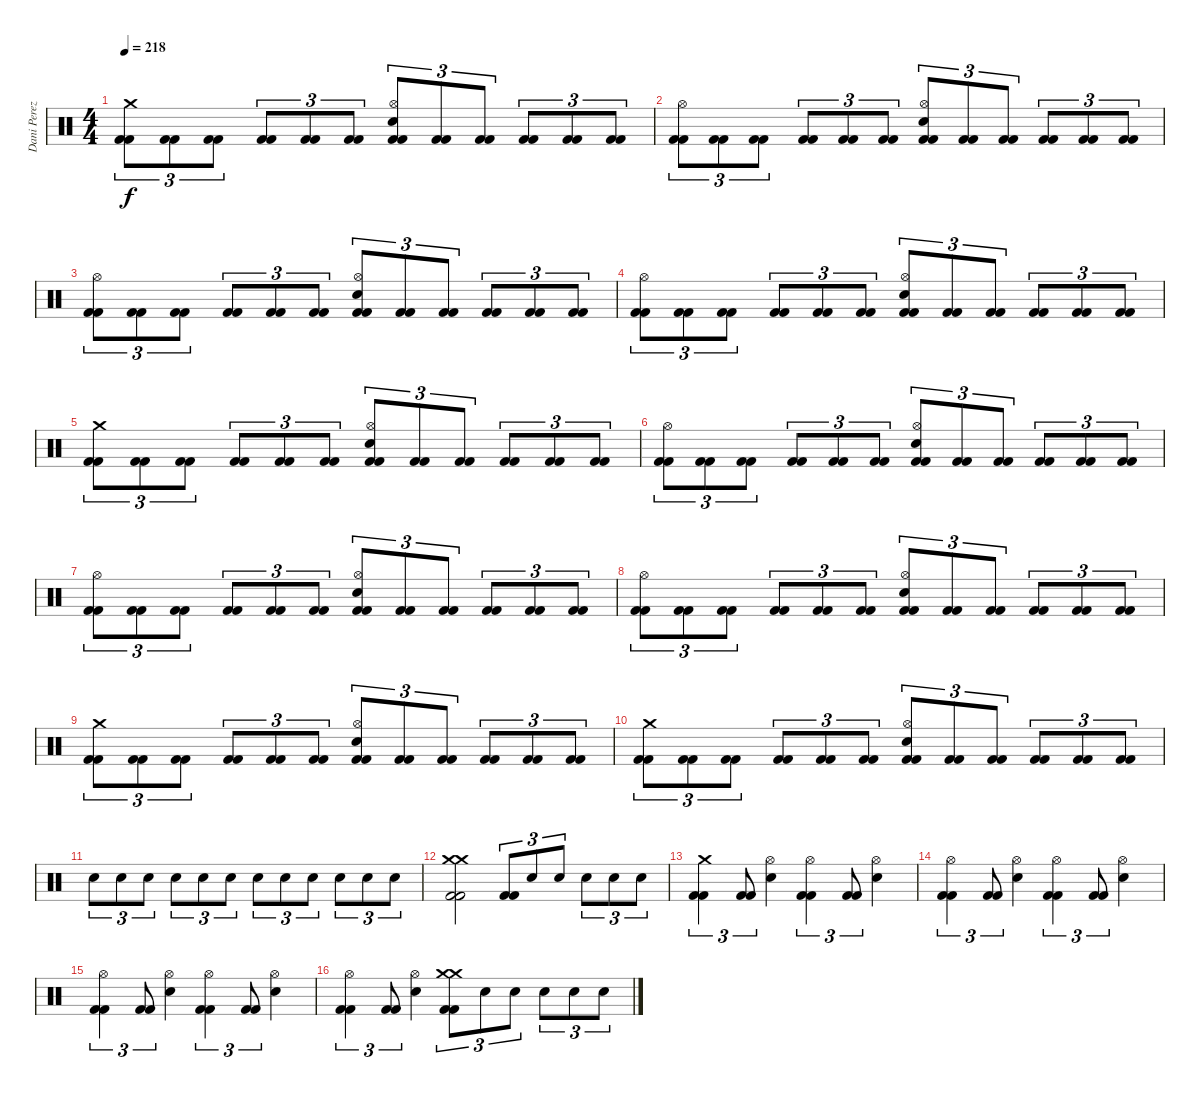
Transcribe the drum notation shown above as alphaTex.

\track ("Dani Perez" "Dani Perez") {instrument percussion}
\staff {score}
\articulation defaults
\ts (4 4)
\tempo 218
\clef neutral
\ks c
("Crash medium (hit)" "Kick (hit) 2" "Kick (hit) 2").8{tu (3 2) dy f} ("Kick (hit) 2" "Kick (hit) 2").8{tu (3 2)} ("Kick (hit) 2" "Kick (hit) 2").8{tu (3 2)} ("Kick (hit) 2" "Kick (hit) 2").8{tu (3 2)} ("Kick (hit) 2" "Kick (hit) 2").8{tu (3 2)} ("Kick (hit) 2" "Kick (hit) 2").8{tu (3 2)} ("Hi-Hat (open)" "Snare (hit) 2" "Kick (hit) 2" "Kick (hit) 2").8{tu (3 2)} ("Kick (hit) 2" "Kick (hit) 2").8{tu (3 2)} ("Kick (hit) 2" "Kick (hit) 2").8{tu (3 2)} ("Kick (hit) 2" "Kick (hit) 2").8{tu (3 2)} ("Kick (hit) 2" "Kick (hit) 2").8{tu (3 2)} ("Kick (hit) 2" "Kick (hit) 2").8{tu (3 2)} |
("Hi-Hat (open)" "Kick (hit) 2" "Kick (hit) 2").8{tu (3 2)} ("Kick (hit) 2" "Kick (hit) 2").8{tu (3 2)} ("Kick (hit) 2" "Kick (hit) 2").8{tu (3 2)} ("Kick (hit) 2" "Kick (hit) 2").8{tu (3 2)} ("Kick (hit) 2" "Kick (hit) 2").8{tu (3 2)} ("Kick (hit) 2" "Kick (hit) 2").8{tu (3 2)} ("Hi-Hat (open)" "Snare (hit) 2" "Kick (hit) 2" "Kick (hit) 2").8{tu (3 2)} ("Kick (hit) 2" "Kick (hit) 2").8{tu (3 2)} ("Kick (hit) 2" "Kick (hit) 2").8{tu (3 2)} ("Kick (hit) 2" "Kick (hit) 2").8{tu (3 2)} ("Kick (hit) 2" "Kick (hit) 2").8{tu (3 2)} ("Kick (hit) 2" "Kick (hit) 2").8{tu (3 2)} |
("Hi-Hat (open)" "Kick (hit) 2" "Kick (hit) 2").8{tu (3 2)} ("Kick (hit) 2" "Kick (hit) 2").8{tu (3 2)} ("Kick (hit) 2" "Kick (hit) 2").8{tu (3 2)} ("Kick (hit) 2" "Kick (hit) 2").8{tu (3 2)} ("Kick (hit) 2" "Kick (hit) 2").8{tu (3 2)} ("Kick (hit) 2" "Kick (hit) 2").8{tu (3 2)} ("Hi-Hat (open)" "Snare (hit) 2" "Kick (hit) 2" "Kick (hit) 2").8{tu (3 2)} ("Kick (hit) 2" "Kick (hit) 2").8{tu (3 2)} ("Kick (hit) 2" "Kick (hit) 2").8{tu (3 2)} ("Kick (hit) 2" "Kick (hit) 2").8{tu (3 2)} ("Kick (hit) 2" "Kick (hit) 2").8{tu (3 2)} ("Kick (hit) 2" "Kick (hit) 2").8{tu (3 2)} |
("Hi-Hat (open)" "Kick (hit) 2" "Kick (hit) 2").8{tu (3 2)} ("Kick (hit) 2" "Kick (hit) 2").8{tu (3 2)} ("Kick (hit) 2" "Kick (hit) 2").8{tu (3 2)} ("Kick (hit) 2" "Kick (hit) 2").8{tu (3 2)} ("Kick (hit) 2" "Kick (hit) 2").8{tu (3 2)} ("Kick (hit) 2" "Kick (hit) 2").8{tu (3 2)} ("Hi-Hat (open)" "Snare (hit) 2" "Kick (hit) 2" "Kick (hit) 2").8{tu (3 2)} ("Kick (hit) 2" "Kick (hit) 2").8{tu (3 2)} ("Kick (hit) 2" "Kick (hit) 2").8{tu (3 2)} ("Kick (hit) 2" "Kick (hit) 2").8{tu (3 2)} ("Kick (hit) 2" "Kick (hit) 2").8{tu (3 2)} ("Kick (hit) 2" "Kick (hit) 2").8{tu (3 2)} |
("Crash medium (hit)" "Kick (hit) 2" "Kick (hit) 2").8{tu (3 2)} ("Kick (hit) 2" "Kick (hit) 2").8{tu (3 2)} ("Kick (hit) 2" "Kick (hit) 2").8{tu (3 2)} ("Kick (hit) 2" "Kick (hit) 2").8{tu (3 2)} ("Kick (hit) 2" "Kick (hit) 2").8{tu (3 2)} ("Kick (hit) 2" "Kick (hit) 2").8{tu (3 2)} ("Hi-Hat (open)" "Snare (hit) 2" "Kick (hit) 2" "Kick (hit) 2").8{tu (3 2)} ("Kick (hit) 2" "Kick (hit) 2").8{tu (3 2)} ("Kick (hit) 2" "Kick (hit) 2").8{tu (3 2)} ("Kick (hit) 2" "Kick (hit) 2").8{tu (3 2)} ("Kick (hit) 2" "Kick (hit) 2").8{tu (3 2)} ("Kick (hit) 2" "Kick (hit) 2").8{tu (3 2)} |
("Hi-Hat (open)" "Kick (hit) 2" "Kick (hit) 2").8{tu (3 2)} ("Kick (hit) 2" "Kick (hit) 2").8{tu (3 2)} ("Kick (hit) 2" "Kick (hit) 2").8{tu (3 2)} ("Kick (hit) 2" "Kick (hit) 2").8{tu (3 2)} ("Kick (hit) 2" "Kick (hit) 2").8{tu (3 2)} ("Kick (hit) 2" "Kick (hit) 2").8{tu (3 2)} ("Hi-Hat (open)" "Snare (hit) 2" "Kick (hit) 2" "Kick (hit) 2").8{tu (3 2)} ("Kick (hit) 2" "Kick (hit) 2").8{tu (3 2)} ("Kick (hit) 2" "Kick (hit) 2").8{tu (3 2)} ("Kick (hit) 2" "Kick (hit) 2").8{tu (3 2)} ("Kick (hit) 2" "Kick (hit) 2").8{tu (3 2)} ("Kick (hit) 2" "Kick (hit) 2").8{tu (3 2)} |
("Hi-Hat (open)" "Kick (hit) 2" "Kick (hit) 2").8{tu (3 2)} ("Kick (hit) 2" "Kick (hit) 2").8{tu (3 2)} ("Kick (hit) 2" "Kick (hit) 2").8{tu (3 2)} ("Kick (hit) 2" "Kick (hit) 2").8{tu (3 2)} ("Kick (hit) 2" "Kick (hit) 2").8{tu (3 2)} ("Kick (hit) 2" "Kick (hit) 2").8{tu (3 2)} ("Hi-Hat (open)" "Snare (hit) 2" "Kick (hit) 2" "Kick (hit) 2").8{tu (3 2)} ("Kick (hit) 2" "Kick (hit) 2").8{tu (3 2)} ("Kick (hit) 2" "Kick (hit) 2").8{tu (3 2)} ("Kick (hit) 2" "Kick (hit) 2").8{tu (3 2)} ("Kick (hit) 2" "Kick (hit) 2").8{tu (3 2)} ("Kick (hit) 2" "Kick (hit) 2").8{tu (3 2)} |
("Hi-Hat (open)" "Kick (hit) 2" "Kick (hit) 2").8{tu (3 2)} ("Kick (hit) 2" "Kick (hit) 2").8{tu (3 2)} ("Kick (hit) 2" "Kick (hit) 2").8{tu (3 2)} ("Kick (hit) 2" "Kick (hit) 2").8{tu (3 2)} ("Kick (hit) 2" "Kick (hit) 2").8{tu (3 2)} ("Kick (hit) 2" "Kick (hit) 2").8{tu (3 2)} ("Hi-Hat (open)" "Snare (hit) 2" "Kick (hit) 2" "Kick (hit) 2").8{tu (3 2)} ("Kick (hit) 2" "Kick (hit) 2").8{tu (3 2)} ("Kick (hit) 2" "Kick (hit) 2").8{tu (3 2)} ("Kick (hit) 2" "Kick (hit) 2").8{tu (3 2)} ("Kick (hit) 2" "Kick (hit) 2").8{tu (3 2)} ("Kick (hit) 2" "Kick (hit) 2").8{tu (3 2)} |
("Crash medium (hit)" "Kick (hit) 2" "Kick (hit) 2").8{tu (3 2)} ("Kick (hit) 2" "Kick (hit) 2").8{tu (3 2)} ("Kick (hit) 2" "Kick (hit) 2").8{tu (3 2)} ("Kick (hit) 2" "Kick (hit) 2").8{tu (3 2)} ("Kick (hit) 2" "Kick (hit) 2").8{tu (3 2)} ("Kick (hit) 2" "Kick (hit) 2").8{tu (3 2)} ("Hi-Hat (open)" "Snare (hit) 2" "Kick (hit) 2" "Kick (hit) 2").8{tu (3 2)} ("Kick (hit) 2" "Kick (hit) 2").8{tu (3 2)} ("Kick (hit) 2" "Kick (hit) 2").8{tu (3 2)} ("Kick (hit) 2" "Kick (hit) 2").8{tu (3 2)} ("Kick (hit) 2" "Kick (hit) 2").8{tu (3 2)} ("Kick (hit) 2" "Kick (hit) 2").8{tu (3 2)} |
("Crash medium (hit)" "Kick (hit) 2" "Kick (hit) 2").8{tu (3 2)} ("Kick (hit) 2" "Kick (hit) 2").8{tu (3 2)} ("Kick (hit) 2" "Kick (hit) 2").8{tu (3 2)} ("Kick (hit) 2" "Kick (hit) 2").8{tu (3 2)} ("Kick (hit) 2" "Kick (hit) 2").8{tu (3 2)} ("Kick (hit) 2" "Kick (hit) 2").8{tu (3 2)} ("Hi-Hat (open)" "Snare (hit) 2" "Kick (hit) 2" "Kick (hit) 2").8{tu (3 2)} ("Kick (hit) 2" "Kick (hit) 2").8{tu (3 2)} ("Kick (hit) 2" "Kick (hit) 2").8{tu (3 2)} ("Kick (hit) 2" "Kick (hit) 2").8{tu (3 2)} ("Kick (hit) 2" "Kick (hit) 2").8{tu (3 2)} ("Kick (hit) 2" "Kick (hit) 2").8{tu (3 2)} |
"Snare (hit) 2".8{tu (3 2)} "Snare (hit) 2".8{tu (3 2)} "Snare (hit) 2".8{tu (3 2)} "Snare (hit) 2".8{tu (3 2)} "Snare (hit) 2".8{tu (3 2)} "Snare (hit) 2".8{tu (3 2)} "Snare (hit) 2".8{tu (3 2)} "Snare (hit) 2".8{tu (3 2)} "Snare (hit) 2".8{tu (3 2)} "Snare (hit) 2".8{tu (3 2)} "Snare (hit) 2".8{tu (3 2)} "Snare (hit) 2".8{tu (3 2)} |
("Crash medium (hit)" "Crash medium (hit)" "Kick (hit) 2" "Kick (hit) 2").2 ("Kick (hit) 2" "Kick (hit) 2").8{tu (3 2)} "Snare (hit) 2".8{tu (3 2)} "Snare (hit) 2".8{tu (3 2)} "Snare (hit) 2".8{tu (3 2)} "Snare (hit) 2".8{tu (3 2)} "Snare (hit) 2".8{tu (3 2)} |
("Crash medium (hit)" "Kick (hit) 2" "Kick (hit) 2").4{tu (3 2)} ("Kick (hit) 2" "Kick (hit) 2").8{tu (3 2)} ("Hi-Hat (open)" "Snare (hit) 2").4 ("Hi-Hat (open)" "Kick (hit) 2" "Kick (hit) 2").4{tu (3 2)} ("Kick (hit) 2" "Kick (hit) 2").8{tu (3 2)} ("Hi-Hat (open)" "Snare (hit) 2").4 |
("Hi-Hat (open)" "Kick (hit) 2" "Kick (hit) 2").4{tu (3 2)} ("Kick (hit) 2" "Kick (hit) 2").8{tu (3 2)} ("Hi-Hat (open)" "Snare (hit) 2").4 ("Hi-Hat (open)" "Kick (hit) 2" "Kick (hit) 2").4{tu (3 2)} ("Kick (hit) 2" "Kick (hit) 2").8{tu (3 2)} ("Hi-Hat (open)" "Snare (hit) 2").4 |
("Hi-Hat (open)" "Kick (hit) 2" "Kick (hit) 2").4{tu (3 2)} ("Kick (hit) 2" "Kick (hit) 2").8{tu (3 2)} ("Hi-Hat (open)" "Snare (hit) 2").4 ("Hi-Hat (open)" "Kick (hit) 2" "Kick (hit) 2").4{tu (3 2)} ("Kick (hit) 2" "Kick (hit) 2").8{tu (3 2)} ("Hi-Hat (open)" "Snare (hit) 2").4 |
("Hi-Hat (open)" "Kick (hit) 2" "Kick (hit) 2").4{tu (3 2)} ("Kick (hit) 2" "Kick (hit) 2").8{tu (3 2)} ("Snare (hit) 2" "Hi-Hat (open)").4 ("Crash medium (hit)" "Crash medium (hit)" "Kick (hit) 2" "Kick (hit) 2").8{tu (3 2)} "Snare (hit) 2".8{tu (3 2)} "Snare (hit) 2".8{tu (3 2)} "Snare (hit) 2".8{tu (3 2)} "Snare (hit) 2".8{tu (3 2)} "Snare (hit) 2".8{tu (3 2)}
